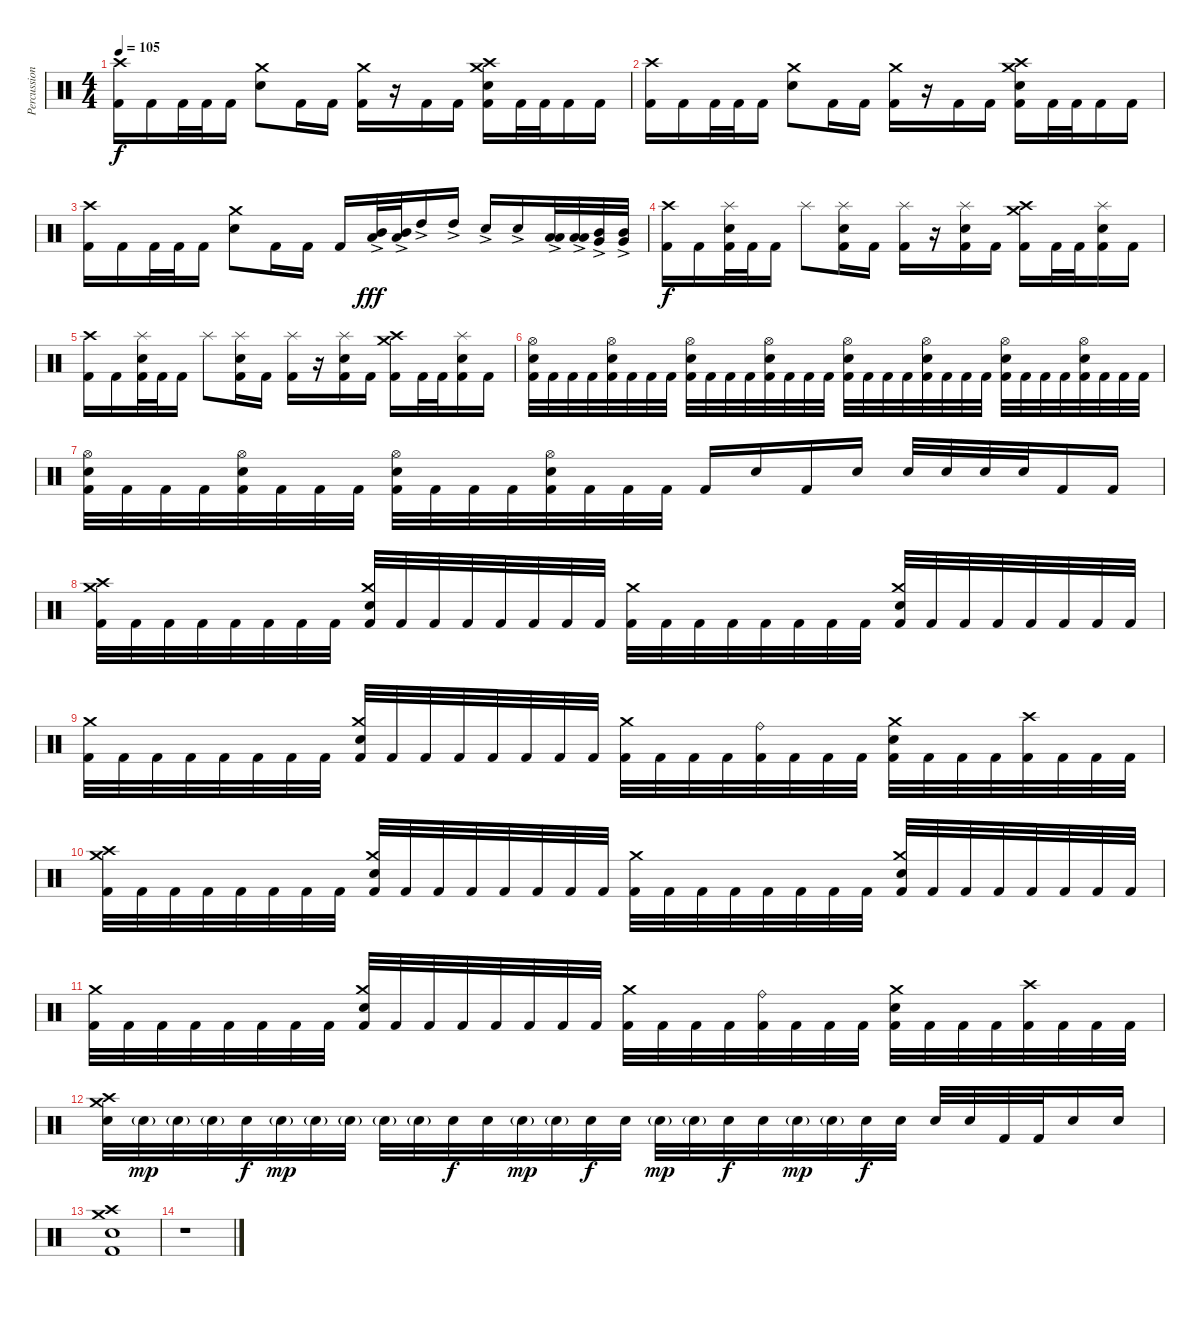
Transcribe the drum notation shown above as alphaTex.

\track ("Percussion" "Percussion") {instrument percussion}
\staff {score}
\articulation defaults
\ts (4 4)
\tempo 105
\clef neutral
\ks c
("Crash high (hit)" "Kick (hit) 2").16{dy f} "Kick (hit) 2".16 "Kick (hit) 2".32 "Kick (hit) 2".32 "Kick (hit) 2".16 ("Crash medium (hit)" "Electric Snare (hit)").8 "Kick (hit) 2".16 "Kick (hit) 2".16 ("Crash medium (hit)" "Kick (hit) 2").16 r.16 "Kick (hit) 2".16 "Kick (hit) 2".16 ("Crash high (hit)" "Crash medium (hit)" "Electric Snare (hit)" "Kick (hit) 2").16 "Kick (hit) 2".32 "Kick (hit) 2".32 "Kick (hit) 2".16 "Kick (hit) 2".16 |
("Crash high (hit)" "Kick (hit) 2").16 "Kick (hit) 2".16 "Kick (hit) 2".32 "Kick (hit) 2".32 "Kick (hit) 2".16 ("Crash medium (hit)" "Electric Snare (hit)").8 "Kick (hit) 2".16 "Kick (hit) 2".16 ("Crash medium (hit)" "Kick (hit) 2").16 r.16 "Kick (hit) 2".16 "Kick (hit) 2".16 ("Crash high (hit)" "Crash medium (hit)" "Electric Snare (hit)" "Kick (hit) 2").16 "Kick (hit) 2".32 "Kick (hit) 2".32 "Kick (hit) 2".16 "Kick (hit) 2".16 |
("Crash high (hit)" "Kick (hit) 2").16 "Kick (hit) 2".16 "Kick (hit) 2".32 "Kick (hit) 2".32 "Kick (hit) 2".16 ("Crash medium (hit)" "Electric Snare (hit)").8 "Kick (hit) 2".16 "Kick (hit) 2".16 "Kick (hit) 2".16 ("Mid Tom (hit)"{ac} "Low Tom (hit)"{ac}).32{dy fff} ("Mid Tom (hit)"{ac} "Low Tom (hit)"{ac}).32 "High Tom (hit)"{ac}.16 "High Tom (hit)"{ac}.16 "Electric Snare (hit)"{ac}.16 "Electric Snare (hit)"{ac}.16 ("Low Tom (hit)"{ac} "Low Floor Tom (hit)"{ac}).32 ("Low Tom (hit)"{ac} "Low Floor Tom (hit)"{ac}).32 ("Mid Tom (hit)"{ac} "Very Low Tom (hit)"{ac}).32 ("Mid Tom (hit)"{ac} "Very Low Tom (hit)"{ac}).32 |
("Crash high (hit)" "Kick (hit) 2").16{dy f} "Kick (hit) 2".16 ("Splash (hit)" "Electric Snare (hit)" "Kick (hit) 2").32 "Kick (hit) 2".32 "Kick (hit) 2".16 "Splash (hit)".8 ("Splash (hit)" "Electric Snare (hit)" "Kick (hit) 2").16 "Kick (hit) 2".16 ("Splash (hit)" "Kick (hit) 2").16 r.16 ("Splash (hit)" "Electric Snare (hit)" "Kick (hit) 2").16 "Kick (hit) 2".16 ("Crash high (hit)" "Crash medium (hit)" "Kick (hit) 2").16 "Kick (hit) 2".32 "Kick (hit) 2".32 ("Splash (hit)" "Electric Snare (hit)" "Kick (hit) 2").16 "Kick (hit) 2".16 |
("Crash high (hit)" "Kick (hit) 2").16 "Kick (hit) 2".16 ("Splash (hit)" "Electric Snare (hit)" "Kick (hit) 2").32 "Kick (hit) 2".32 "Kick (hit) 2".16 "Splash (hit)".8 ("Splash (hit)" "Electric Snare (hit)" "Kick (hit) 2").16 "Kick (hit) 2".16 ("Splash (hit)" "Kick (hit) 2").16 r.16 ("Splash (hit)" "Electric Snare (hit)" "Kick (hit) 2").16 "Kick (hit) 2".16 ("Crash high (hit)" "Crash medium (hit)" "Kick (hit) 2").16 "Kick (hit) 2".32 "Kick (hit) 2".32 ("Splash (hit)" "Electric Snare (hit)" "Kick (hit) 2").16 "Kick (hit) 2".16 |
("Hi-Hat (open)" "Electric Snare (hit)" "Kick (hit) 2").32 "Kick (hit) 2".32 "Kick (hit) 2".32 "Kick (hit) 2".32 ("Hi-Hat (open)" "Electric Snare (hit)" "Kick (hit) 2").32 "Kick (hit) 2".32 "Kick (hit) 2".32 "Kick (hit) 2".32 ("Hi-Hat (open)" "Electric Snare (hit)" "Kick (hit) 2").32 "Kick (hit) 2".32 "Kick (hit) 2".32 "Kick (hit) 2".32 ("Hi-Hat (open)" "Electric Snare (hit)" "Kick (hit) 2").32 "Kick (hit) 2".32 "Kick (hit) 2".32 "Kick (hit) 2".32 ("Hi-Hat (open)" "Electric Snare (hit)" "Kick (hit) 2").32 "Kick (hit) 2".32 "Kick (hit) 2".32 "Kick (hit) 2".32 ("Hi-Hat (open)" "Electric Snare (hit)" "Kick (hit) 2").32 "Kick (hit) 2".32 "Kick (hit) 2".32 "Kick (hit) 2".32 ("Hi-Hat (open)" "Electric Snare (hit)" "Kick (hit) 2").32 "Kick (hit) 2".32 "Kick (hit) 2".32 "Kick (hit) 2".32 ("Hi-Hat (open)" "Electric Snare (hit)" "Kick (hit) 2").32 "Kick (hit) 2".32 "Kick (hit) 2".32 "Kick (hit) 2".32 |
("Hi-Hat (open)" "Electric Snare (hit)" "Kick (hit) 2").32 "Kick (hit) 2".32 "Kick (hit) 2".32 "Kick (hit) 2".32 ("Hi-Hat (open)" "Electric Snare (hit)" "Kick (hit) 2").32 "Kick (hit) 2".32 "Kick (hit) 2".32 "Kick (hit) 2".32 ("Hi-Hat (open)" "Electric Snare (hit)" "Kick (hit) 2").32 "Kick (hit) 2".32 "Kick (hit) 2".32 "Kick (hit) 2".32 ("Hi-Hat (open)" "Electric Snare (hit)" "Kick (hit) 2").32 "Kick (hit) 2".32 "Kick (hit) 2".32 "Kick (hit) 2".32 "Kick (hit) 2".16 "Electric Snare (hit)".16 "Kick (hit) 2".16 "Electric Snare (hit)".16 "Electric Snare (hit)".32 "Electric Snare (hit)".32 "Electric Snare (hit)".32 "Electric Snare (hit)".32 "Kick (hit) 2".16 "Kick (hit) 2".16 |
("Crash medium (hit)" "Crash high (hit)" "Kick (hit) 2").32 "Kick (hit) 2".32 "Kick (hit) 2".32 "Kick (hit) 2".32 "Kick (hit) 2".32 "Kick (hit) 2".32 "Kick (hit) 2".32 "Kick (hit) 2".32 ("Crash medium (hit)" "Electric Snare (hit)" "Kick (hit) 2").32 "Kick (hit) 2".32 "Kick (hit) 2".32 "Kick (hit) 2".32 "Kick (hit) 2".32 "Kick (hit) 2".32 "Kick (hit) 2".32 "Kick (hit) 2".32 ("Crash medium (hit)" "Kick (hit) 2").32 "Kick (hit) 2".32 "Kick (hit) 2".32 "Kick (hit) 2".32 "Kick (hit) 2".32 "Kick (hit) 2".32 "Kick (hit) 2".32 "Kick (hit) 2".32 ("Crash medium (hit)" "Electric Snare (hit)" "Kick (hit) 2").32 "Kick (hit) 2".32 "Kick (hit) 2".32 "Kick (hit) 2".32 "Kick (hit) 2".32 "Kick (hit) 2".32 "Kick (hit) 2".32 "Kick (hit) 2".32 |
("Crash medium (hit)" "Kick (hit) 2").32 "Kick (hit) 2".32 "Kick (hit) 2".32 "Kick (hit) 2".32 "Kick (hit) 2".32 "Kick (hit) 2".32 "Kick (hit) 2".32 "Kick (hit) 2".32 ("Crash medium (hit)" "Electric Snare (hit)" "Kick (hit) 2").32 "Kick (hit) 2".32 "Kick (hit) 2".32 "Kick (hit) 2".32 "Kick (hit) 2".32 "Kick (hit) 2".32 "Kick (hit) 2".32 "Kick (hit) 2".32 ("Crash medium (hit)" "Kick (hit) 2").32 "Kick (hit) 2".32 "Kick (hit) 2".32 "Kick (hit) 2".32 ("Ride (bell)" "Kick (hit) 2").32 "Kick (hit) 2".32 "Kick (hit) 2".32 "Kick (hit) 2".32 ("Crash medium (hit)" "Electric Snare (hit)" "Kick (hit) 2").32 "Kick (hit) 2".32 "Kick (hit) 2".32 "Kick (hit) 2".32 ("Crash high (hit)" "Kick (hit) 2").32 "Kick (hit) 2".32 "Kick (hit) 2".32 "Kick (hit) 2".32 |
("Crash medium (hit)" "Crash high (hit)" "Kick (hit) 2").32 "Kick (hit) 2".32 "Kick (hit) 2".32 "Kick (hit) 2".32 "Kick (hit) 2".32 "Kick (hit) 2".32 "Kick (hit) 2".32 "Kick (hit) 2".32 ("Crash medium (hit)" "Electric Snare (hit)" "Kick (hit) 2").32 "Kick (hit) 2".32 "Kick (hit) 2".32 "Kick (hit) 2".32 "Kick (hit) 2".32 "Kick (hit) 2".32 "Kick (hit) 2".32 "Kick (hit) 2".32 ("Crash medium (hit)" "Kick (hit) 2").32 "Kick (hit) 2".32 "Kick (hit) 2".32 "Kick (hit) 2".32 "Kick (hit) 2".32 "Kick (hit) 2".32 "Kick (hit) 2".32 "Kick (hit) 2".32 ("Crash medium (hit)" "Electric Snare (hit)" "Kick (hit) 2").32 "Kick (hit) 2".32 "Kick (hit) 2".32 "Kick (hit) 2".32 "Kick (hit) 2".32 "Kick (hit) 2".32 "Kick (hit) 2".32 "Kick (hit) 2".32 |
("Crash medium (hit)" "Kick (hit) 2").32 "Kick (hit) 2".32 "Kick (hit) 2".32 "Kick (hit) 2".32 "Kick (hit) 2".32 "Kick (hit) 2".32 "Kick (hit) 2".32 "Kick (hit) 2".32 ("Crash medium (hit)" "Electric Snare (hit)" "Kick (hit) 2").32 "Kick (hit) 2".32 "Kick (hit) 2".32 "Kick (hit) 2".32 "Kick (hit) 2".32 "Kick (hit) 2".32 "Kick (hit) 2".32 "Kick (hit) 2".32 ("Crash medium (hit)" "Kick (hit) 2").32 "Kick (hit) 2".32 "Kick (hit) 2".32 "Kick (hit) 2".32 ("Ride (bell)" "Kick (hit) 2").32 "Kick (hit) 2".32 "Kick (hit) 2".32 "Kick (hit) 2".32 ("Crash medium (hit)" "Electric Snare (hit)" "Kick (hit) 2").32 "Kick (hit) 2".32 "Kick (hit) 2".32 "Kick (hit) 2".32 ("Crash high (hit)" "Kick (hit) 2").32 "Kick (hit) 2".32 "Kick (hit) 2".32 "Kick (hit) 2".32 |
("Crash high (hit)" "Crash medium (hit)" "Electric Snare (hit)").32 "Electric Snare (hit)"{g}.32{dy mp} "Electric Snare (hit)"{g}.32 "Electric Snare (hit)"{g}.32 "Electric Snare (hit)".32{dy f} "Electric Snare (hit)"{g}.32{dy mp} "Electric Snare (hit)"{g}.32 "Electric Snare (hit)"{g}.32 "Electric Snare (hit)"{g}.32 "Electric Snare (hit)"{g}.32 "Electric Snare (hit)".32{dy f} "Electric Snare (hit)".32 "Electric Snare (hit)"{g}.32{dy mp} "Electric Snare (hit)"{g}.32 "Electric Snare (hit)".32{dy f} "Electric Snare (hit)".32 "Electric Snare (hit)"{g}.32{dy mp} "Electric Snare (hit)"{g}.32 "Electric Snare (hit)".32{dy f} "Electric Snare (hit)".32 "Electric Snare (hit)"{g}.32{dy mp} "Electric Snare (hit)"{g}.32 "Electric Snare (hit)".32{dy f} "Electric Snare (hit)".32 "Electric Snare (hit)".32 "Electric Snare (hit)".32 "Kick (hit) 2".32 "Kick (hit) 2".32 "Electric Snare (hit)".16 "Electric Snare (hit)".16 |
("Crash medium (hit)" "Crash high (hit)" "Electric Snare (hit)" "Kick (hit) 2").1 |
r.1
